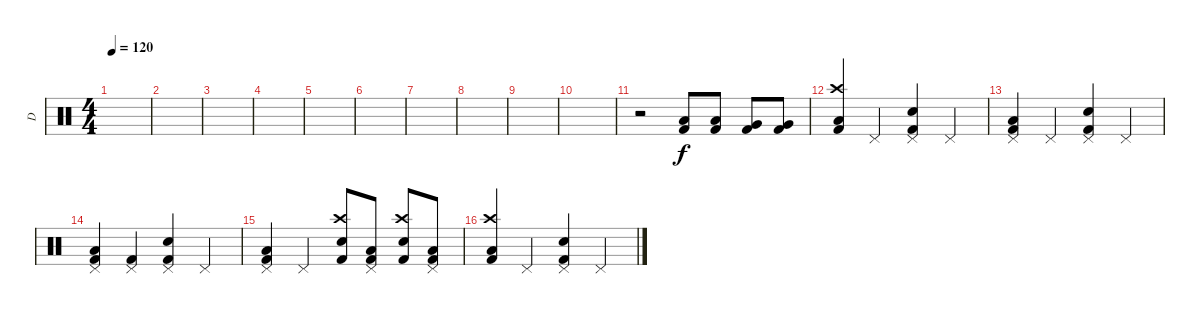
\track ("D" "D") {instrument percussion}
\staff {score}
\articulation defaults
\ts (4 4)
\tempo 120
\clef neutral
\ks c
|
|
|
|
|
|
|
|
|
|
r.2 ("Low Tom (hit)" "Kick (hit) 2").8 ("Low Tom (hit)" "Kick (hit) 2").8 ("Very Low Tom (hit)" "Kick (hit) 2").8 ("Very Low Tom (hit)" "Kick (hit) 2").8 |
("Crash high (hit)" "Low Floor Tom (hit)" "Kick (hit) 2").4 "Pedal Hi-Hat (hit)".4 ("Pedal Hi-Hat (hit)" "Snare (hit) 2" "Kick (hit) 2").4 "Pedal Hi-Hat (hit)".4 |
("Pedal Hi-Hat (hit)" "Low Floor Tom (hit)" "Kick (hit) 2").4 "Pedal Hi-Hat (hit)".4 ("Pedal Hi-Hat (hit)" "Snare (hit) 2" "Kick (hit) 2").4 "Pedal Hi-Hat (hit)".4 |
("Pedal Hi-Hat (hit)" "Low Floor Tom (hit)" "Kick (hit) 2").4 ("Pedal Hi-Hat (hit)" "Kick (hit) 2").4 ("Pedal Hi-Hat (hit)" "Snare (hit) 2" "Kick (hit) 2").4 "Pedal Hi-Hat (hit)".4 |
("Pedal Hi-Hat (hit)" "Low Floor Tom (hit)" "Kick (hit) 2").4 "Pedal Hi-Hat (hit)".4 ("Crash high (hit)" "Snare (hit) 2" "Kick (hit) 2").8 ("Pedal Hi-Hat (hit)" "Low Floor Tom (hit)" "Kick (hit) 2").8 ("Crash high (hit)" "Snare (hit) 2" "Kick (hit) 2").8 ("Pedal Hi-Hat (hit)" "Low Floor Tom (hit)" "Kick (hit) 2").8 |
("Crash high (hit)" "Low Floor Tom (hit)" "Kick (hit) 2").4 "Pedal Hi-Hat (hit)".4 ("Pedal Hi-Hat (hit)" "Snare (hit) 2" "Kick (hit) 2").4 "Pedal Hi-Hat (hit)".4
